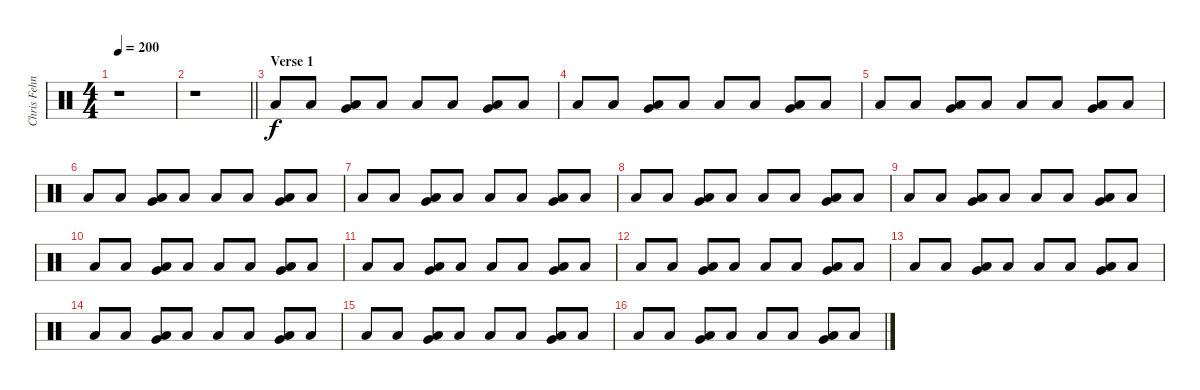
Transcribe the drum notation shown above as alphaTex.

\track ("Chris Fehn" "Chris Fehn") {instrument percussion}
\staff {score}
\articulation defaults
\ts (4 4)
\tempo 200
\clef neutral
\ks c
r.1{dy f} |
\barLineRight lightlight
r.1 |
\section ("" "Verse 1")
"Low Floor Tom (hit)".8 "Low Floor Tom (hit)".8 ("Very Low Tom (hit)" "Low Floor Tom (hit)").8 "Low Floor Tom (hit)".8 "Low Floor Tom (hit)".8 "Low Floor Tom (hit)".8 ("Very Low Tom (hit)" "Low Floor Tom (hit)").8 "Low Floor Tom (hit)".8 |
"Low Floor Tom (hit)".8 "Low Floor Tom (hit)".8 ("Very Low Tom (hit)" "Low Floor Tom (hit)").8 "Low Floor Tom (hit)".8 "Low Floor Tom (hit)".8 "Low Floor Tom (hit)".8 ("Very Low Tom (hit)" "Low Floor Tom (hit)").8 "Low Floor Tom (hit)".8 |
"Low Floor Tom (hit)".8 "Low Floor Tom (hit)".8 ("Very Low Tom (hit)" "Low Floor Tom (hit)").8 "Low Floor Tom (hit)".8 "Low Floor Tom (hit)".8 "Low Floor Tom (hit)".8 ("Very Low Tom (hit)" "Low Floor Tom (hit)").8 "Low Floor Tom (hit)".8 |
"Low Floor Tom (hit)".8 "Low Floor Tom (hit)".8 ("Very Low Tom (hit)" "Low Floor Tom (hit)").8 "Low Floor Tom (hit)".8 "Low Floor Tom (hit)".8 "Low Floor Tom (hit)".8 ("Very Low Tom (hit)" "Low Floor Tom (hit)").8 "Low Floor Tom (hit)".8 |
"Low Floor Tom (hit)".8 "Low Floor Tom (hit)".8 ("Very Low Tom (hit)" "Low Floor Tom (hit)").8 "Low Floor Tom (hit)".8 "Low Floor Tom (hit)".8 "Low Floor Tom (hit)".8 ("Very Low Tom (hit)" "Low Floor Tom (hit)").8 "Low Floor Tom (hit)".8 |
"Low Floor Tom (hit)".8 "Low Floor Tom (hit)".8 ("Very Low Tom (hit)" "Low Floor Tom (hit)").8 "Low Floor Tom (hit)".8 "Low Floor Tom (hit)".8 "Low Floor Tom (hit)".8 ("Very Low Tom (hit)" "Low Floor Tom (hit)").8 "Low Floor Tom (hit)".8 |
"Low Floor Tom (hit)".8 "Low Floor Tom (hit)".8 ("Very Low Tom (hit)" "Low Floor Tom (hit)").8 "Low Floor Tom (hit)".8 "Low Floor Tom (hit)".8 "Low Floor Tom (hit)".8 ("Very Low Tom (hit)" "Low Floor Tom (hit)").8 "Low Floor Tom (hit)".8 |
"Low Floor Tom (hit)".8 "Low Floor Tom (hit)".8 ("Very Low Tom (hit)" "Low Floor Tom (hit)").8 "Low Floor Tom (hit)".8 "Low Floor Tom (hit)".8 "Low Floor Tom (hit)".8 ("Very Low Tom (hit)" "Low Floor Tom (hit)").8 "Low Floor Tom (hit)".8 |
"Low Floor Tom (hit)".8 "Low Floor Tom (hit)".8 ("Very Low Tom (hit)" "Low Floor Tom (hit)").8 "Low Floor Tom (hit)".8 "Low Floor Tom (hit)".8 "Low Floor Tom (hit)".8 ("Very Low Tom (hit)" "Low Floor Tom (hit)").8 "Low Floor Tom (hit)".8 |
"Low Floor Tom (hit)".8 "Low Floor Tom (hit)".8 ("Very Low Tom (hit)" "Low Floor Tom (hit)").8 "Low Floor Tom (hit)".8 "Low Floor Tom (hit)".8 "Low Floor Tom (hit)".8 ("Very Low Tom (hit)" "Low Floor Tom (hit)").8 "Low Floor Tom (hit)".8 |
"Low Floor Tom (hit)".8 "Low Floor Tom (hit)".8 ("Very Low Tom (hit)" "Low Floor Tom (hit)").8 "Low Floor Tom (hit)".8 "Low Floor Tom (hit)".8 "Low Floor Tom (hit)".8 ("Very Low Tom (hit)" "Low Floor Tom (hit)").8 "Low Floor Tom (hit)".8 |
"Low Floor Tom (hit)".8 "Low Floor Tom (hit)".8 ("Very Low Tom (hit)" "Low Floor Tom (hit)").8 "Low Floor Tom (hit)".8 "Low Floor Tom (hit)".8 "Low Floor Tom (hit)".8 ("Very Low Tom (hit)" "Low Floor Tom (hit)").8 "Low Floor Tom (hit)".8 |
"Low Floor Tom (hit)".8 "Low Floor Tom (hit)".8 ("Very Low Tom (hit)" "Low Floor Tom (hit)").8 "Low Floor Tom (hit)".8 "Low Floor Tom (hit)".8 "Low Floor Tom (hit)".8 ("Very Low Tom (hit)" "Low Floor Tom (hit)").8 "Low Floor Tom (hit)".8 |
"Low Floor Tom (hit)".8 "Low Floor Tom (hit)".8 ("Very Low Tom (hit)" "Low Floor Tom (hit)").8 "Low Floor Tom (hit)".8 "Low Floor Tom (hit)".8 "Low Floor Tom (hit)".8 ("Very Low Tom (hit)" "Low Floor Tom (hit)").8 "Low Floor Tom (hit)".8
